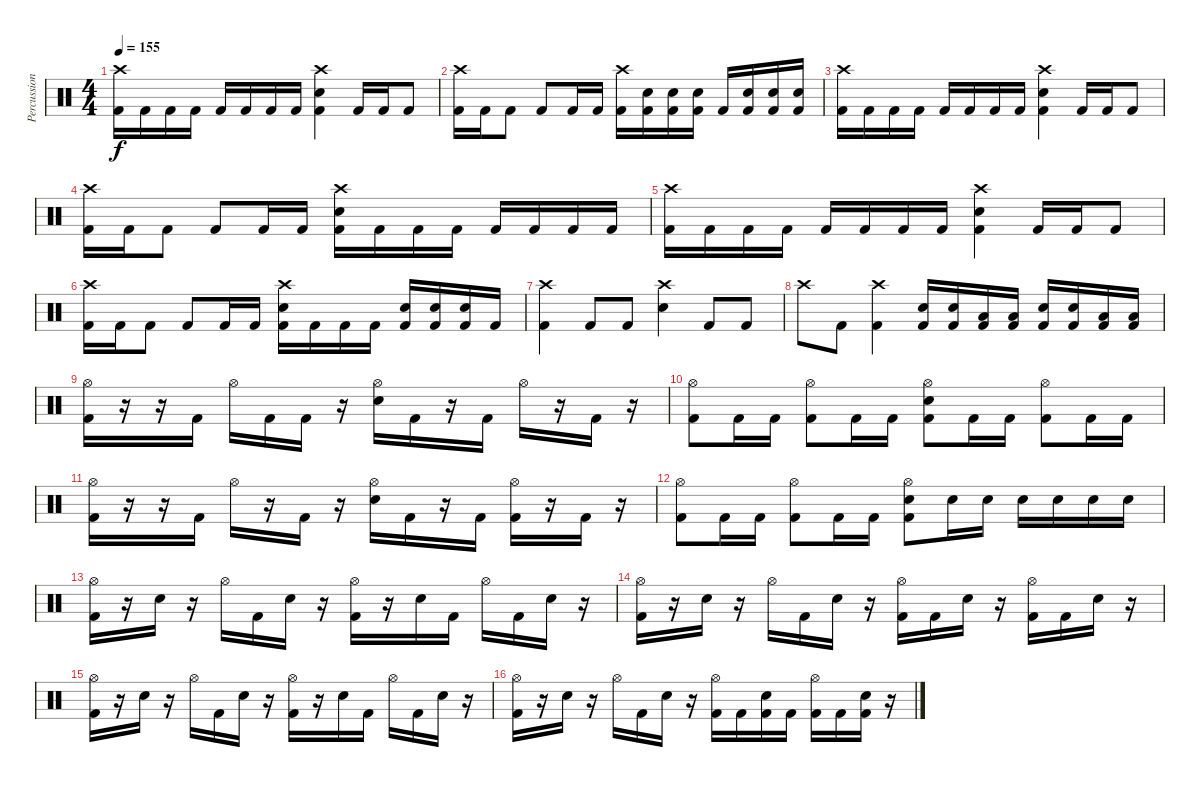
\track ("Percussion" "Percussion") {instrument percussion}
\staff {score}
\articulation defaults
\ts (4 4)
\tempo 155
\clef neutral
\ks c
("Crash high (hit)" "Kick (hit) 2").16{dy f} "Kick (hit) 2".16 "Kick (hit) 2".16 "Kick (hit) 2".16 "Kick (hit) 2".16 "Kick (hit) 2".16 "Kick (hit) 2".16 "Kick (hit) 2".16 ("Crash high (hit)" "Electric Snare (hit)" "Kick (hit) 2").4 "Kick (hit) 2".16 "Kick (hit) 2".16 "Kick (hit) 2".8 |
("Crash high (hit)" "Kick (hit) 2").16 "Kick (hit) 2".16 "Kick (hit) 2".8 "Kick (hit) 2".8 "Kick (hit) 2".16 "Kick (hit) 2".16 ("Crash high (hit)" "Kick (hit) 2").16 ("Electric Snare (hit)" "Kick (hit) 2").16 ("Electric Snare (hit)" "Kick (hit) 2").16 ("Electric Snare (hit)" "Kick (hit) 2").16 "Kick (hit) 2".16 ("Electric Snare (hit)" "Kick (hit) 2").16 ("Electric Snare (hit)" "Kick (hit) 2").16 ("Electric Snare (hit)" "Kick (hit) 2").16 |
("Crash high (hit)" "Kick (hit) 2").16 "Kick (hit) 2".16 "Kick (hit) 2".16 "Kick (hit) 2".16 "Kick (hit) 2".16 "Kick (hit) 2".16 "Kick (hit) 2".16 "Kick (hit) 2".16 ("Crash high (hit)" "Electric Snare (hit)" "Kick (hit) 2").4 "Kick (hit) 2".16 "Kick (hit) 2".16 "Kick (hit) 2".8 |
("Crash high (hit)" "Kick (hit) 2").16 "Kick (hit) 2".16 "Kick (hit) 2".8 "Kick (hit) 2".8 "Kick (hit) 2".16 "Kick (hit) 2".16 ("Crash high (hit)" "Electric Snare (hit)" "Kick (hit) 2").16 "Kick (hit) 2".16 "Kick (hit) 2".16 "Kick (hit) 2".16 "Kick (hit) 2".16 "Kick (hit) 2".16 "Kick (hit) 2".16 "Kick (hit) 2".16 |
("Crash high (hit)" "Kick (hit) 2").16 "Kick (hit) 2".16 "Kick (hit) 2".16 "Kick (hit) 2".16 "Kick (hit) 2".16 "Kick (hit) 2".16 "Kick (hit) 2".16 "Kick (hit) 2".16 ("Crash high (hit)" "Electric Snare (hit)" "Kick (hit) 2").4 "Kick (hit) 2".16 "Kick (hit) 2".16 "Kick (hit) 2".8 |
("Crash high (hit)" "Kick (hit) 2").16 "Kick (hit) 2".16 "Kick (hit) 2".8 "Kick (hit) 2".8 "Kick (hit) 2".16 "Kick (hit) 2".16 ("Crash high (hit)" "Electric Snare (hit)" "Kick (hit) 2").16 "Kick (hit) 2".16 "Kick (hit) 2".16 "Kick (hit) 2".16 ("Electric Snare (hit)" "Kick (hit) 2").16 ("Electric Snare (hit)" "Kick (hit) 2").16 ("Electric Snare (hit)" "Kick (hit) 2").16 "Kick (hit) 2".16 |
("Crash high (hit)" "Kick (hit) 2").4 "Kick (hit) 2".8 "Kick (hit) 2".8 ("Crash high (hit)" "Electric Snare (hit)").4 "Kick (hit) 2".8 "Kick (hit) 2".8 |
"Crash high (hit)".8 "Kick (hit) 2".8 ("Crash high (hit)" "Kick (hit) 2").4 ("Electric Snare (hit)" "Kick (hit) 2").16 ("Electric Snare (hit)" "Kick (hit) 2").16 ("Low Tom (hit)" "Kick (hit) 2").16 ("Low Floor Tom (hit)" "Kick (hit) 2").16 ("Electric Snare (hit)" "Kick (hit) 2").16 ("Electric Snare (hit)" "Kick (hit) 2").16 ("Low Tom (hit)" "Kick (hit) 2").16 ("Low Floor Tom (hit)" "Kick (hit) 2").16 |
("Hi-Hat (open)" "Kick (hit) 2").16 r.16 r.16 "Kick (hit) 2".16 "Hi-Hat (open)".16 "Kick (hit) 2".16 "Kick (hit) 2".16 r.16 ("Hi-Hat (open)" "Electric Snare (hit)").16 "Kick (hit) 2".16 r.16 "Kick (hit) 2".16 "Hi-Hat (open)".16 r.16 "Kick (hit) 2".16 r.16 |
("Hi-Hat (open)" "Kick (hit) 2").8 "Kick (hit) 2".16 "Kick (hit) 2".16 ("Hi-Hat (open)" "Kick (hit) 2").8 "Kick (hit) 2".16 "Kick (hit) 2".16 ("Hi-Hat (open)" "Electric Snare (hit)" "Kick (hit) 2").8 "Kick (hit) 2".16 "Kick (hit) 2".16 ("Hi-Hat (open)" "Kick (hit) 2").8 "Kick (hit) 2".16 "Kick (hit) 2".16 |
("Hi-Hat (open)" "Kick (hit) 2").16 r.16 r.16 "Kick (hit) 2".16 "Hi-Hat (open)".16 r.16 "Kick (hit) 2".16 r.16 ("Hi-Hat (open)" "Electric Snare (hit)").16 "Kick (hit) 2".16 r.16 "Kick (hit) 2".16 ("Hi-Hat (open)" "Kick (hit) 2").16 r.16 "Kick (hit) 2".16 r.16 |
("Hi-Hat (open)" "Kick (hit) 2").8 "Kick (hit) 2".16 "Kick (hit) 2".16 ("Hi-Hat (open)" "Kick (hit) 2").8 "Kick (hit) 2".16 "Kick (hit) 2".16 ("Hi-Hat (open)" "Electric Snare (hit)" "Kick (hit) 2").8 "Electric Snare (hit)".16 "Electric Snare (hit)".16 "Electric Snare (hit)".16 "Electric Snare (hit)".16 "Electric Snare (hit)".16 "Electric Snare (hit)".16 |
("Hi-Hat (open)" "Kick (hit) 2").16 r.16 "Electric Snare (hit)".16 r.16 "Hi-Hat (open)".16 "Kick (hit) 2".16 "Electric Snare (hit)".16 r.16 ("Hi-Hat (open)" "Kick (hit) 2").16 r.16 "Electric Snare (hit)".16 "Kick (hit) 2".16 "Hi-Hat (open)".16 "Kick (hit) 2".16 "Electric Snare (hit)".16 r.16 |
("Hi-Hat (open)" "Kick (hit) 2").16 r.16 "Electric Snare (hit)".16 r.16 "Hi-Hat (open)".16 "Kick (hit) 2".16 "Electric Snare (hit)".16 r.16 ("Hi-Hat (open)" "Kick (hit) 2").16 "Kick (hit) 2".16 "Electric Snare (hit)".16 r.16 ("Hi-Hat (open)" "Kick (hit) 2").16 "Kick (hit) 2".16 "Electric Snare (hit)".16 r.16 |
("Hi-Hat (open)" "Kick (hit) 2").16 r.16 "Electric Snare (hit)".16 r.16 "Hi-Hat (open)".16 "Kick (hit) 2".16 "Electric Snare (hit)".16 r.16 ("Hi-Hat (open)" "Kick (hit) 2").16 r.16 "Electric Snare (hit)".16 "Kick (hit) 2".16 "Hi-Hat (open)".16 "Kick (hit) 2".16 "Electric Snare (hit)".16 r.16 |
("Hi-Hat (open)" "Kick (hit) 2").16 r.16 "Electric Snare (hit)".16 r.16 "Hi-Hat (open)".16 "Kick (hit) 2".16 "Electric Snare (hit)".16 r.16 ("Hi-Hat (open)" "Kick (hit) 2").16 "Kick (hit) 2".16 ("Electric Snare (hit)" "Kick (hit) 2").16 "Kick (hit) 2".16 ("Hi-Hat (open)" "Kick (hit) 2").16 "Kick (hit) 2".16 ("Electric Snare (hit)" "Kick (hit) 2").16 r.16
